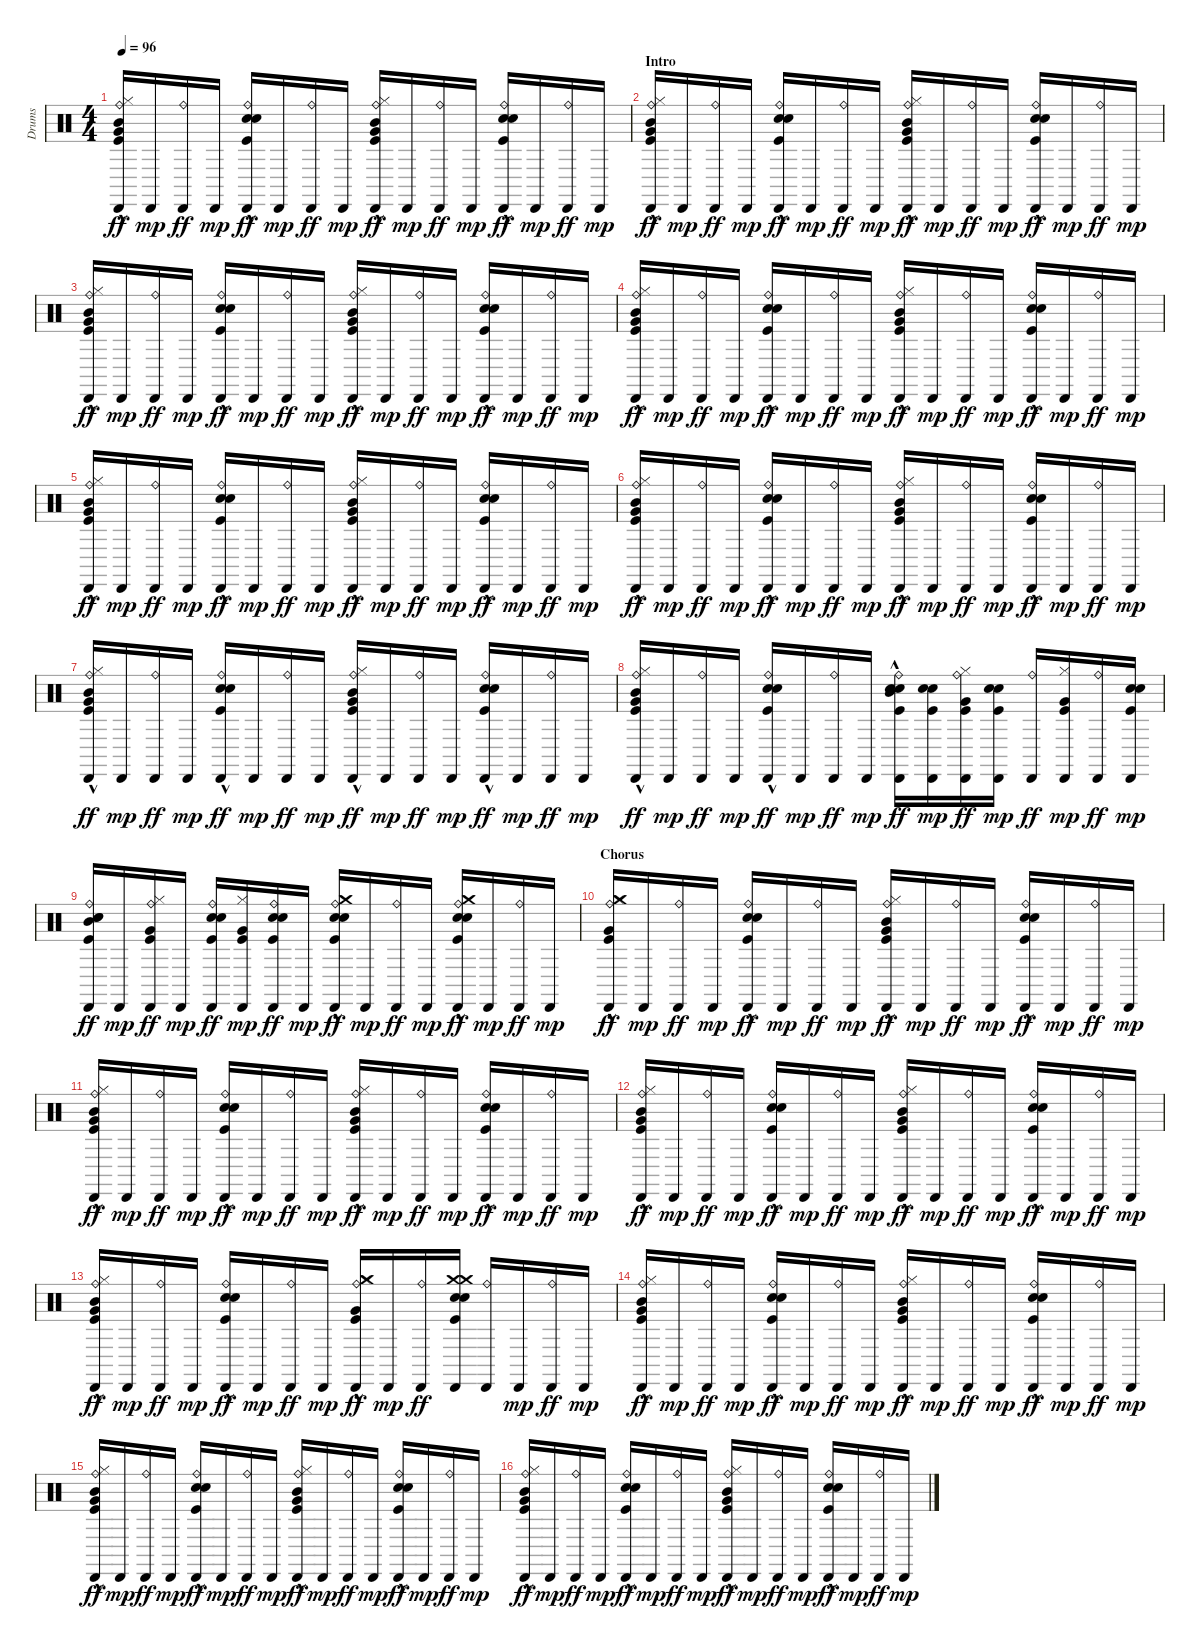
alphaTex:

\track ("Drums" "Drums") {instrument percussion}
\staff {score}
\articulation defaults
\ts (4 4)
\tempo 96
\clef neutral
\ks c
("Kick (hit)"{hac} "Hi-Hat (closed)"{hac} "Very Low Tom (hit)"{hac} "Cabasa (hit)" "Ride (bell)" "Mid Tom (hit)"{hac}).16{dy ff} "Cabasa (hit)".16{dy mp} ("Cabasa (hit)" "Ride (bell)").16{dy ff} "Cabasa (hit)".16{dy mp} ("Kick (hit)"{hac} "Snare (hit) 2"{hac} "Electric Snare (hit)"{hac} "Cabasa (hit)" "Ride (bell)").16{dy ff} "Cabasa (hit)".16{dy mp} ("Cabasa (hit)" "Ride (bell)").16{dy ff} "Cabasa (hit)".16{dy mp} ("Kick (hit)"{hac} "Hi-Hat (closed)"{hac} "Very Low Tom (hit)"{hac} "Cabasa (hit)" "Ride (bell)" "Mid Tom (hit)"{hac}).16{dy ff} "Cabasa (hit)".16{dy mp} ("Cabasa (hit)" "Ride (bell)").16{dy ff} "Cabasa (hit)".16{dy mp} ("Kick (hit)"{hac} "Snare (hit) 2"{hac} "Electric Snare (hit)"{hac} "Cabasa (hit)" "Ride (bell)").16{dy ff} "Cabasa (hit)".16{dy mp} ("Cabasa (hit)" "Ride (bell)").16{dy ff} "Cabasa (hit)".16{dy mp} |
\section ("" "Intro")
("Kick (hit)"{hac} "Hi-Hat (closed)"{hac} "Very Low Tom (hit)"{hac} "Cabasa (hit)" "Ride (bell)" "Mid Tom (hit)"{hac}).16{dy ff} "Cabasa (hit)".16{dy mp} ("Cabasa (hit)" "Ride (bell)").16{dy ff} "Cabasa (hit)".16{dy mp} ("Kick (hit)"{hac} "Snare (hit) 2"{hac} "Electric Snare (hit)"{hac} "Cabasa (hit)" "Ride (bell)").16{dy ff} "Cabasa (hit)".16{dy mp} ("Cabasa (hit)" "Ride (bell)").16{dy ff} "Cabasa (hit)".16{dy mp} ("Kick (hit)"{hac} "Hi-Hat (closed)"{hac} "Very Low Tom (hit)"{hac} "Cabasa (hit)" "Ride (bell)" "Mid Tom (hit)"{hac}).16{dy ff} "Cabasa (hit)".16{dy mp} ("Cabasa (hit)" "Ride (bell)").16{dy ff} "Cabasa (hit)".16{dy mp} ("Kick (hit)"{hac} "Snare (hit) 2"{hac} "Electric Snare (hit)"{hac} "Cabasa (hit)" "Ride (bell)").16{dy ff} "Cabasa (hit)".16{dy mp} ("Cabasa (hit)" "Ride (bell)").16{dy ff} "Cabasa (hit)".16{dy mp} |
("Kick (hit)"{hac} "Hi-Hat (closed)"{hac} "Very Low Tom (hit)"{hac} "Cabasa (hit)" "Ride (bell)" "Mid Tom (hit)"{hac}).16{dy ff} "Cabasa (hit)".16{dy mp} ("Cabasa (hit)" "Ride (bell)").16{dy ff} "Cabasa (hit)".16{dy mp} ("Kick (hit)"{hac} "Snare (hit) 2"{hac} "Electric Snare (hit)"{hac} "Cabasa (hit)" "Ride (bell)").16{dy ff} "Cabasa (hit)".16{dy mp} ("Cabasa (hit)" "Ride (bell)").16{dy ff} "Cabasa (hit)".16{dy mp} ("Kick (hit)"{hac} "Hi-Hat (closed)"{hac} "Very Low Tom (hit)"{hac} "Cabasa (hit)" "Ride (bell)" "Mid Tom (hit)"{hac}).16{dy ff} "Cabasa (hit)".16{dy mp} ("Cabasa (hit)" "Ride (bell)").16{dy ff} "Cabasa (hit)".16{dy mp} ("Kick (hit)"{hac} "Snare (hit) 2"{hac} "Electric Snare (hit)"{hac} "Cabasa (hit)" "Ride (bell)").16{dy ff} "Cabasa (hit)".16{dy mp} ("Cabasa (hit)" "Ride (bell)").16{dy ff} "Cabasa (hit)".16{dy mp} |
("Kick (hit)"{hac} "Hi-Hat (closed)"{hac} "Very Low Tom (hit)"{hac} "Cabasa (hit)" "Ride (bell)" "Mid Tom (hit)"{hac}).16{dy ff} "Cabasa (hit)".16{dy mp} ("Cabasa (hit)" "Ride (bell)").16{dy ff} "Cabasa (hit)".16{dy mp} ("Kick (hit)"{hac} "Snare (hit) 2"{hac} "Electric Snare (hit)"{hac} "Cabasa (hit)" "Ride (bell)").16{dy ff} "Cabasa (hit)".16{dy mp} ("Cabasa (hit)" "Ride (bell)").16{dy ff} "Cabasa (hit)".16{dy mp} ("Kick (hit)"{hac} "Hi-Hat (closed)"{hac} "Very Low Tom (hit)"{hac} "Cabasa (hit)" "Ride (bell)" "Mid Tom (hit)"{hac}).16{dy ff} "Cabasa (hit)".16{dy mp} ("Cabasa (hit)" "Ride (bell)").16{dy ff} "Cabasa (hit)".16{dy mp} ("Kick (hit)"{hac} "Snare (hit) 2"{hac} "Electric Snare (hit)"{hac} "Cabasa (hit)" "Ride (bell)").16{dy ff} "Cabasa (hit)".16{dy mp} ("Cabasa (hit)" "Ride (bell)").16{dy ff} "Cabasa (hit)".16{dy mp} |
("Kick (hit)"{hac} "Hi-Hat (closed)"{hac} "Very Low Tom (hit)"{hac} "Cabasa (hit)" "Ride (bell)" "Mid Tom (hit)"{hac}).16{dy ff} "Cabasa (hit)".16{dy mp} ("Cabasa (hit)" "Ride (bell)").16{dy ff} "Cabasa (hit)".16{dy mp} ("Kick (hit)"{hac} "Snare (hit) 2"{hac} "Electric Snare (hit)"{hac} "Cabasa (hit)" "Ride (bell)").16{dy ff} "Cabasa (hit)".16{dy mp} ("Cabasa (hit)" "Ride (bell)").16{dy ff} "Cabasa (hit)".16{dy mp} ("Kick (hit)"{hac} "Hi-Hat (closed)"{hac} "Very Low Tom (hit)"{hac} "Cabasa (hit)" "Ride (bell)" "Mid Tom (hit)"{hac}).16{dy ff} "Cabasa (hit)".16{dy mp} ("Cabasa (hit)" "Ride (bell)").16{dy ff} "Cabasa (hit)".16{dy mp} ("Kick (hit)"{hac} "Snare (hit) 2"{hac} "Electric Snare (hit)"{hac} "Cabasa (hit)" "Ride (bell)").16{dy ff} "Cabasa (hit)".16{dy mp} ("Cabasa (hit)" "Ride (bell)").16{dy ff} "Cabasa (hit)".16{dy mp} |
("Kick (hit)"{hac} "Hi-Hat (closed)"{hac} "Very Low Tom (hit)"{hac} "Cabasa (hit)" "Ride (bell)" "Mid Tom (hit)"{hac}).16{dy ff} "Cabasa (hit)".16{dy mp} ("Cabasa (hit)" "Ride (bell)").16{dy ff} "Cabasa (hit)".16{dy mp} ("Kick (hit)"{hac} "Snare (hit) 2"{hac} "Electric Snare (hit)"{hac} "Cabasa (hit)" "Ride (bell)").16{dy ff} "Cabasa (hit)".16{dy mp} ("Cabasa (hit)" "Ride (bell)").16{dy ff} "Cabasa (hit)".16{dy mp} ("Kick (hit)"{hac} "Hi-Hat (closed)"{hac} "Very Low Tom (hit)"{hac} "Cabasa (hit)" "Ride (bell)" "Mid Tom (hit)"{hac}).16{dy ff} "Cabasa (hit)".16{dy mp} ("Cabasa (hit)" "Ride (bell)").16{dy ff} "Cabasa (hit)".16{dy mp} ("Kick (hit)"{hac} "Snare (hit) 2"{hac} "Electric Snare (hit)"{hac} "Cabasa (hit)" "Ride (bell)").16{dy ff} "Cabasa (hit)".16{dy mp} ("Cabasa (hit)" "Ride (bell)").16{dy ff} "Cabasa (hit)".16{dy mp} |
("Kick (hit)"{hac} "Hi-Hat (closed)"{hac} "Very Low Tom (hit)"{hac} "Cabasa (hit)" "Ride (bell)" "Mid Tom (hit)"{hac}).16{dy ff} "Cabasa (hit)".16{dy mp} ("Cabasa (hit)" "Ride (bell)").16{dy ff} "Cabasa (hit)".16{dy mp} ("Kick (hit)"{hac} "Snare (hit) 2"{hac} "Electric Snare (hit)"{hac} "Cabasa (hit)" "Ride (bell)").16{dy ff} "Cabasa (hit)".16{dy mp} ("Cabasa (hit)" "Ride (bell)").16{dy ff} "Cabasa (hit)".16{dy mp} ("Kick (hit)"{hac} "Hi-Hat (closed)"{hac} "Very Low Tom (hit)"{hac} "Cabasa (hit)" "Ride (bell)" "Mid Tom (hit)"{hac}).16{dy ff} "Cabasa (hit)".16{dy mp} ("Cabasa (hit)" "Ride (bell)").16{dy ff} "Cabasa (hit)".16{dy mp} ("Kick (hit)"{hac} "Snare (hit) 2"{hac} "Electric Snare (hit)"{hac} "Cabasa (hit)" "Ride (bell)").16{dy ff} "Cabasa (hit)".16{dy mp} ("Cabasa (hit)" "Ride (bell)").16{dy ff} "Cabasa (hit)".16{dy mp} |
("Kick (hit)"{hac} "Hi-Hat (closed)"{hac} "Very Low Tom (hit)"{hac} "Cabasa (hit)" "Ride (bell)" "Mid Tom (hit)"{hac}).16{dy ff} "Cabasa (hit)".16{dy mp} ("Cabasa (hit)" "Ride (bell)").16{dy ff} "Cabasa (hit)".16{dy mp} ("Kick (hit)"{hac} "Snare (hit) 2"{hac} "Electric Snare (hit)"{hac} "Cabasa (hit)" "Ride (bell)").16{dy ff} "Cabasa (hit)".16{dy mp} ("Cabasa (hit)" "Ride (bell)").16{dy ff} "Cabasa (hit)".16{dy mp} ("Kick (hit)" "Snare (hit) 2" "Electric Snare (hit)" "Cabasa (hit)" "Ride (bell)" "Mid Tom (hit)"{hac}).16{dy ff} ("Kick (hit)" "Snare (hit) 2" "Electric Snare (hit)" "Cabasa (hit)").16{dy mp} ("Kick (hit)" "Hi-Hat (closed)" "Very Low Tom (hit)" "Cabasa (hit)" "Ride (bell)").16{dy ff} ("Kick (hit)" "Snare (hit) 2" "Electric Snare (hit)" "Cabasa (hit)").16{dy mp} ("Cabasa (hit)" "Ride (bell)").16{dy ff} ("Kick (hit)" "Hi-Hat (closed)" "Very Low Tom (hit)" "Cabasa (hit)").16{dy mp} ("Cabasa (hit)" "Ride (bell)").16{dy ff} ("Kick (hit)" "Snare (hit) 2" "Electric Snare (hit)" "Cabasa (hit)").16{dy mp} |
("Kick (hit)" "Snare (hit) 2" "Electric Snare (hit)" "Cabasa (hit)" "Ride (bell)" "Mid Tom (hit)").16{dy ff} "Cabasa (hit)".16{dy mp} ("Kick (hit)" "Hi-Hat (closed)" "Very Low Tom (hit)" "Cabasa (hit)" "Ride (bell)").16{dy ff} "Cabasa (hit)".16{dy mp} ("Kick (hit)" "Snare (hit) 2" "Electric Snare (hit)" "Cabasa (hit)" "Ride (bell)").16{dy ff} ("Kick (hit)" "Hi-Hat (closed)" "Very Low Tom (hit)" "Cabasa (hit)").16{dy mp} ("Kick (hit)" "Snare (hit) 2" "Electric Snare (hit)" "Cabasa (hit)" "Ride (bell)").16{dy ff} "Cabasa (hit)".16{dy mp} ("Crash medium (hit)"{hac} "Kick (hit)"{hac} "Snare (hit) 2"{hac} "Electric Snare (hit)"{hac} "Cabasa (hit)" "Ride (bell)").16{dy ff} "Cabasa (hit)".16{dy mp} ("Cabasa (hit)" "Ride (bell)").16{dy ff} "Cabasa (hit)".16{dy mp} ("Crash medium (hit)"{hac} "Kick (hit)"{hac} "Snare (hit) 2"{hac} "Electric Snare (hit)"{hac} "Cabasa (hit)" "Ride (bell)").16{dy ff} "Cabasa (hit)".16{dy mp} ("Cabasa (hit)" "Ride (bell)").16{dy ff} "Cabasa (hit)".16{dy mp} |
\section ("" "Chorus")
("Crash medium (hit)"{hac} "Kick (hit)"{hac} "Hi-Hat (closed)"{hac} "Very Low Tom (hit)"{hac} "Cabasa (hit)" "Ride (bell)").16{dy ff} "Cabasa (hit)".16{dy mp} ("Cabasa (hit)" "Ride (bell)").16{dy ff} "Cabasa (hit)".16{dy mp} ("Kick (hit)"{hac} "Snare (hit) 2"{hac} "Electric Snare (hit)"{hac} "Cabasa (hit)" "Ride (bell)").16{dy ff} "Cabasa (hit)".16{dy mp} ("Cabasa (hit)" "Ride (bell)").16{dy ff} "Cabasa (hit)".16{dy mp} ("Kick (hit)"{hac} "Hi-Hat (closed)"{hac} "Very Low Tom (hit)"{hac} "Cabasa (hit)" "Ride (bell)" "Mid Tom (hit)"{hac}).16{dy ff} "Cabasa (hit)".16{dy mp} ("Cabasa (hit)" "Ride (bell)").16{dy ff} "Cabasa (hit)".16{dy mp} ("Kick (hit)"{hac} "Snare (hit) 2"{hac} "Electric Snare (hit)"{hac} "Cabasa (hit)" "Ride (bell)").16{dy ff} "Cabasa (hit)".16{dy mp} ("Cabasa (hit)" "Ride (bell)").16{dy ff} "Cabasa (hit)".16{dy mp} |
("Kick (hit)"{hac} "Hi-Hat (closed)"{hac} "Very Low Tom (hit)"{hac} "Cabasa (hit)" "Ride (bell)" "Mid Tom (hit)"{hac}).16{dy ff} "Cabasa (hit)".16{dy mp} ("Cabasa (hit)" "Ride (bell)").16{dy ff} "Cabasa (hit)".16{dy mp} ("Kick (hit)"{hac} "Snare (hit) 2"{hac} "Electric Snare (hit)"{hac} "Cabasa (hit)" "Ride (bell)").16{dy ff} "Cabasa (hit)".16{dy mp} ("Cabasa (hit)" "Ride (bell)").16{dy ff} "Cabasa (hit)".16{dy mp} ("Kick (hit)"{hac} "Hi-Hat (closed)"{hac} "Very Low Tom (hit)"{hac} "Cabasa (hit)" "Ride (bell)" "Mid Tom (hit)"{hac}).16{dy ff} "Cabasa (hit)".16{dy mp} ("Cabasa (hit)" "Ride (bell)").16{dy ff} "Cabasa (hit)".16{dy mp} ("Kick (hit)"{hac} "Snare (hit) 2"{hac} "Electric Snare (hit)"{hac} "Cabasa (hit)" "Ride (bell)").16{dy ff} "Cabasa (hit)".16{dy mp} ("Cabasa (hit)" "Ride (bell)").16{dy ff} "Cabasa (hit)".16{dy mp} |
("Kick (hit)"{hac} "Hi-Hat (closed)"{hac} "Very Low Tom (hit)"{hac} "Cabasa (hit)" "Ride (bell)" "Mid Tom (hit)"{hac}).16{dy ff} "Cabasa (hit)".16{dy mp} ("Cabasa (hit)" "Ride (bell)").16{dy ff} "Cabasa (hit)".16{dy mp} ("Kick (hit)"{hac} "Snare (hit) 2"{hac} "Electric Snare (hit)"{hac} "Cabasa (hit)" "Ride (bell)").16{dy ff} "Cabasa (hit)".16{dy mp} ("Cabasa (hit)" "Ride (bell)").16{dy ff} "Cabasa (hit)".16{dy mp} ("Kick (hit)"{hac} "Hi-Hat (closed)"{hac} "Very Low Tom (hit)"{hac} "Cabasa (hit)" "Ride (bell)" "Mid Tom (hit)"{hac}).16{dy ff} "Cabasa (hit)".16{dy mp} ("Cabasa (hit)" "Ride (bell)").16{dy ff} "Cabasa (hit)".16{dy mp} ("Kick (hit)"{hac} "Snare (hit) 2"{hac} "Electric Snare (hit)"{hac} "Cabasa (hit)" "Ride (bell)").16{dy ff} "Cabasa (hit)".16{dy mp} ("Cabasa (hit)" "Ride (bell)").16{dy ff} "Cabasa (hit)".16{dy mp} |
("Kick (hit)"{hac} "Hi-Hat (closed)"{hac} "Very Low Tom (hit)"{hac} "Cabasa (hit)" "Ride (bell)" "Mid Tom (hit)").16{dy ff} "Cabasa (hit)".16{dy mp} ("Cabasa (hit)" "Ride (bell)").16{dy ff} "Cabasa (hit)".16{dy mp} ("Kick (hit)"{hac} "Snare (hit) 2"{hac} "Electric Snare (hit)"{hac} "Cabasa (hit)" "Ride (bell)").16{dy ff} "Cabasa (hit)".16{dy mp} ("Cabasa (hit)" "Ride (bell)").16{dy ff} "Cabasa (hit)".16{dy mp} ("Crash medium (hit)"{hac} "Kick (hit)"{hac} "Hi-Hat (closed)"{hac} "Very Low Tom (hit)"{hac} "Cabasa (hit)" "Ride (bell)").16{dy ff} "Cabasa (hit)".16{dy mp} ("Cabasa (hit)" "Ride (bell)").16{dy ff} ("Crash medium (hit)" "Kick (hit)" "Snare (hit) 2" "Electric Snare (hit)" "Cabasa (hit)" "Crash medium (hit)").16 ("Cabasa (hit)" "Ride (bell)").16 "Cabasa (hit)".16{dy mp} ("Cabasa (hit)" "Ride (bell)").16{dy ff} "Cabasa (hit)".16{dy mp} |
("Kick (hit)"{hac} "Hi-Hat (closed)"{hac} "Very Low Tom (hit)"{hac} "Cabasa (hit)" "Ride (bell)" "Mid Tom (hit)"{hac}).16{dy ff} "Cabasa (hit)".16{dy mp} ("Cabasa (hit)" "Ride (bell)").16{dy ff} "Cabasa (hit)".16{dy mp} ("Kick (hit)"{hac} "Snare (hit) 2"{hac} "Electric Snare (hit)"{hac} "Cabasa (hit)" "Ride (bell)").16{dy ff} "Cabasa (hit)".16{dy mp} ("Cabasa (hit)" "Ride (bell)").16{dy ff} "Cabasa (hit)".16{dy mp} ("Kick (hit)"{hac} "Hi-Hat (closed)"{hac} "Very Low Tom (hit)"{hac} "Cabasa (hit)" "Ride (bell)" "Mid Tom (hit)"{hac}).16{dy ff} "Cabasa (hit)".16{dy mp} ("Cabasa (hit)" "Ride (bell)").16{dy ff} "Cabasa (hit)".16{dy mp} ("Kick (hit)"{hac} "Snare (hit) 2"{hac} "Electric Snare (hit)"{hac} "Cabasa (hit)" "Ride (bell)").16{dy ff} "Cabasa (hit)".16{dy mp} ("Cabasa (hit)" "Ride (bell)").16{dy ff} "Cabasa (hit)".16{dy mp} |
("Kick (hit)"{hac} "Hi-Hat (closed)"{hac} "Very Low Tom (hit)"{hac} "Cabasa (hit)" "Ride (bell)" "Mid Tom (hit)"{hac}).16{dy ff} "Cabasa (hit)".16{dy mp} ("Cabasa (hit)" "Ride (bell)").16{dy ff} "Cabasa (hit)".16{dy mp} ("Kick (hit)"{hac} "Snare (hit) 2"{hac} "Electric Snare (hit)"{hac} "Cabasa (hit)" "Ride (bell)").16{dy ff} "Cabasa (hit)".16{dy mp} ("Cabasa (hit)" "Ride (bell)").16{dy ff} "Cabasa (hit)".16{dy mp} ("Kick (hit)"{hac} "Hi-Hat (closed)"{hac} "Very Low Tom (hit)"{hac} "Cabasa (hit)" "Ride (bell)" "Mid Tom (hit)"{hac}).16{dy ff} "Cabasa (hit)".16{dy mp} ("Cabasa (hit)" "Ride (bell)").16{dy ff} "Cabasa (hit)".16{dy mp} ("Kick (hit)"{hac} "Snare (hit) 2"{hac} "Electric Snare (hit)"{hac} "Cabasa (hit)" "Ride (bell)").16{dy ff} "Cabasa (hit)".16{dy mp} ("Cabasa (hit)" "Ride (bell)").16{dy ff} "Cabasa (hit)".16{dy mp} |
("Kick (hit)"{hac} "Hi-Hat (closed)"{hac} "Very Low Tom (hit)"{hac} "Cabasa (hit)" "Ride (bell)" "Mid Tom (hit)"{hac}).16{dy ff} "Cabasa (hit)".16{dy mp} ("Cabasa (hit)" "Ride (bell)").16{dy ff} "Cabasa (hit)".16{dy mp} ("Kick (hit)"{hac} "Snare (hit) 2"{hac} "Electric Snare (hit)"{hac} "Cabasa (hit)" "Ride (bell)").16{dy ff} "Cabasa (hit)".16{dy mp} ("Cabasa (hit)" "Ride (bell)").16{dy ff} "Cabasa (hit)".16{dy mp} ("Kick (hit)"{hac} "Hi-Hat (closed)"{hac} "Very Low Tom (hit)"{hac} "Cabasa (hit)" "Ride (bell)" "Mid Tom (hit)"{hac}).16{dy ff} "Cabasa (hit)".16{dy mp} ("Cabasa (hit)" "Ride (bell)").16{dy ff} "Cabasa (hit)".16{dy mp} ("Kick (hit)"{hac} "Snare (hit) 2"{hac} "Electric Snare (hit)"{hac} "Cabasa (hit)" "Ride (bell)").16{dy ff} "Cabasa (hit)".16{dy mp} ("Cabasa (hit)" "Ride (bell)").16{dy ff} "Cabasa (hit)".16{dy mp}
